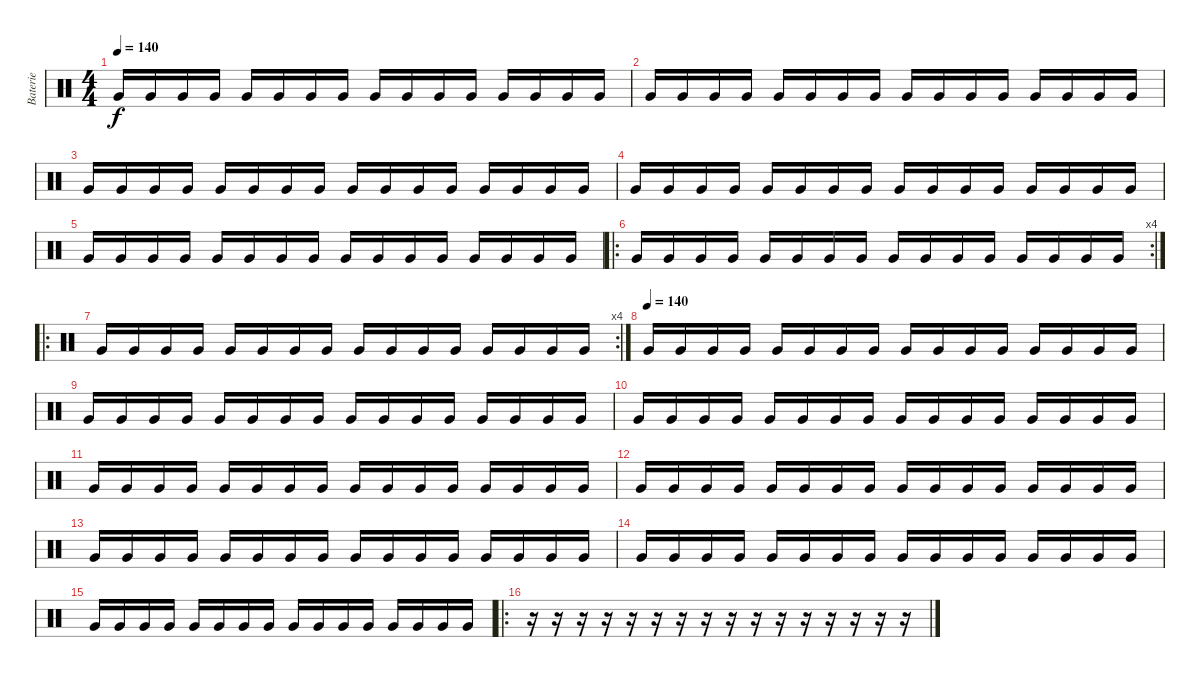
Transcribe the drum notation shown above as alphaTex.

\track ("Baterie" "Baterie") {instrument percussion}
\staff {score}
\articulation defaults
\ts (4 4)
\tempo 140
\clef neutral
\ks c "Very Low Tom (hit)".16{dy f} "Very Low Tom (hit)".16 "Very Low Tom (hit)".16 "Very Low Tom (hit)".16 "Very Low Tom (hit)".16 "Very Low Tom (hit)".16 "Very Low Tom (hit)".16 "Very Low Tom (hit)".16 "Very Low Tom (hit)".16 "Very Low Tom (hit)".16 "Very Low Tom (hit)".16 "Very Low Tom (hit)".16 "Very Low Tom (hit)".16 "Very Low Tom (hit)".16 "Very Low Tom (hit)".16 "Very Low Tom (hit)".16
|
"Very Low Tom (hit)".16 "Very Low Tom (hit)".16 "Very Low Tom (hit)".16 "Very Low Tom (hit)".16 "Very Low Tom (hit)".16 "Very Low Tom (hit)".16 "Very Low Tom (hit)".16 "Very Low Tom (hit)".16 "Very Low Tom (hit)".16 "Very Low Tom (hit)".16 "Very Low Tom (hit)".16 "Very Low Tom (hit)".16 "Very Low Tom (hit)".16 "Very Low Tom (hit)".16 "Very Low Tom (hit)".16 "Very Low Tom (hit)".16 |
"Very Low Tom (hit)".16 "Very Low Tom (hit)".16 "Very Low Tom (hit)".16 "Very Low Tom (hit)".16 "Very Low Tom (hit)".16 "Very Low Tom (hit)".16 "Very Low Tom (hit)".16 "Very Low Tom (hit)".16 "Very Low Tom (hit)".16 "Very Low Tom (hit)".16 "Very Low Tom (hit)".16 "Very Low Tom (hit)".16 "Very Low Tom (hit)".16 "Very Low Tom (hit)".16 "Very Low Tom (hit)".16 "Very Low Tom (hit)".16 |
"Very Low Tom (hit)".16 "Very Low Tom (hit)".16 "Very Low Tom (hit)".16 "Very Low Tom (hit)".16 "Very Low Tom (hit)".16 "Very Low Tom (hit)".16 "Very Low Tom (hit)".16 "Very Low Tom (hit)".16 "Very Low Tom (hit)".16 "Very Low Tom (hit)".16 "Very Low Tom (hit)".16 "Very Low Tom (hit)".16 "Very Low Tom (hit)".16 "Very Low Tom (hit)".16 "Very Low Tom (hit)".16 "Very Low Tom (hit)".16 |
"Very Low Tom (hit)".16 "Very Low Tom (hit)".16 "Very Low Tom (hit)".16 "Very Low Tom (hit)".16 "Very Low Tom (hit)".16 "Very Low Tom (hit)".16 "Very Low Tom (hit)".16 "Very Low Tom (hit)".16 "Very Low Tom (hit)".16 "Very Low Tom (hit)".16 "Very Low Tom (hit)".16 "Very Low Tom (hit)".16 "Very Low Tom (hit)".16 "Very Low Tom (hit)".16 "Very Low Tom (hit)".16 "Very Low Tom (hit)".16 |
\ro
\rc 4 "Very Low Tom (hit)".16 "Very Low Tom (hit)".16 "Very Low Tom (hit)".16 "Very Low Tom (hit)".16 "Very Low Tom (hit)".16 "Very Low Tom (hit)".16 "Very Low Tom (hit)".16 "Very Low Tom (hit)".16 "Very Low Tom (hit)".16 "Very Low Tom (hit)".16 "Very Low Tom (hit)".16 "Very Low Tom (hit)".16 "Very Low Tom (hit)".16 "Very Low Tom (hit)".16 "Very Low Tom (hit)".16 "Very Low Tom (hit)".16
|
\ro
\rc 4 "Very Low Tom (hit)".16 "Very Low Tom (hit)".16 "Very Low Tom (hit)".16 "Very Low Tom (hit)".16 "Very Low Tom (hit)".16 "Very Low Tom (hit)".16 "Very Low Tom (hit)".16 "Very Low Tom (hit)".16 "Very Low Tom (hit)".16 "Very Low Tom (hit)".16 "Very Low Tom (hit)".16 "Very Low Tom (hit)".16 "Very Low Tom (hit)".16 "Very Low Tom (hit)".16 "Very Low Tom (hit)".16 "Very Low Tom (hit)".16
|
\tempo (140)
"Very Low Tom (hit)".16 "Very Low Tom (hit)".16 "Very Low Tom (hit)".16 "Very Low Tom (hit)".16 "Very Low Tom (hit)".16 "Very Low Tom (hit)".16 "Very Low Tom (hit)".16 "Very Low Tom (hit)".16 "Very Low Tom (hit)".16 "Very Low Tom (hit)".16 "Very Low Tom (hit)".16 "Very Low Tom (hit)".16 "Very Low Tom (hit)".16 "Very Low Tom (hit)".16 "Very Low Tom (hit)".16 "Very Low Tom (hit)".16 |
"Very Low Tom (hit)".16 "Very Low Tom (hit)".16 "Very Low Tom (hit)".16 "Very Low Tom (hit)".16 "Very Low Tom (hit)".16 "Very Low Tom (hit)".16 "Very Low Tom (hit)".16 "Very Low Tom (hit)".16 "Very Low Tom (hit)".16 "Very Low Tom (hit)".16 "Very Low Tom (hit)".16 "Very Low Tom (hit)".16 "Very Low Tom (hit)".16 "Very Low Tom (hit)".16 "Very Low Tom (hit)".16 "Very Low Tom (hit)".16 |
"Very Low Tom (hit)".16 "Very Low Tom (hit)".16 "Very Low Tom (hit)".16 "Very Low Tom (hit)".16 "Very Low Tom (hit)".16 "Very Low Tom (hit)".16 "Very Low Tom (hit)".16 "Very Low Tom (hit)".16 "Very Low Tom (hit)".16 "Very Low Tom (hit)".16 "Very Low Tom (hit)".16 "Very Low Tom (hit)".16 "Very Low Tom (hit)".16 "Very Low Tom (hit)".16 "Very Low Tom (hit)".16 "Very Low Tom (hit)".16 |
"Very Low Tom (hit)".16 "Very Low Tom (hit)".16 "Very Low Tom (hit)".16 "Very Low Tom (hit)".16 "Very Low Tom (hit)".16 "Very Low Tom (hit)".16 "Very Low Tom (hit)".16 "Very Low Tom (hit)".16 "Very Low Tom (hit)".16 "Very Low Tom (hit)".16 "Very Low Tom (hit)".16 "Very Low Tom (hit)".16 "Very Low Tom (hit)".16 "Very Low Tom (hit)".16 "Very Low Tom (hit)".16 "Very Low Tom (hit)".16 |
"Very Low Tom (hit)".16 "Very Low Tom (hit)".16 "Very Low Tom (hit)".16 "Very Low Tom (hit)".16 "Very Low Tom (hit)".16 "Very Low Tom (hit)".16 "Very Low Tom (hit)".16 "Very Low Tom (hit)".16 "Very Low Tom (hit)".16 "Very Low Tom (hit)".16 "Very Low Tom (hit)".16 "Very Low Tom (hit)".16 "Very Low Tom (hit)".16 "Very Low Tom (hit)".16 "Very Low Tom (hit)".16 "Very Low Tom (hit)".16 |
"Very Low Tom (hit)".16 "Very Low Tom (hit)".16 "Very Low Tom (hit)".16 "Very Low Tom (hit)".16 "Very Low Tom (hit)".16 "Very Low Tom (hit)".16 "Very Low Tom (hit)".16 "Very Low Tom (hit)".16 "Very Low Tom (hit)".16 "Very Low Tom (hit)".16 "Very Low Tom (hit)".16 "Very Low Tom (hit)".16 "Very Low Tom (hit)".16 "Very Low Tom (hit)".16 "Very Low Tom (hit)".16 "Very Low Tom (hit)".16 |
"Very Low Tom (hit)".16 "Very Low Tom (hit)".16 "Very Low Tom (hit)".16 "Very Low Tom (hit)".16 "Very Low Tom (hit)".16 "Very Low Tom (hit)".16 "Very Low Tom (hit)".16 "Very Low Tom (hit)".16 "Very Low Tom (hit)".16 "Very Low Tom (hit)".16 "Very Low Tom (hit)".16 "Very Low Tom (hit)".16 "Very Low Tom (hit)".16 "Very Low Tom (hit)".16 "Very Low Tom (hit)".16 "Very Low Tom (hit)".16 |
"Very Low Tom (hit)".16 "Very Low Tom (hit)".16 "Very Low Tom (hit)".16 "Very Low Tom (hit)".16 "Very Low Tom (hit)".16 "Very Low Tom (hit)".16 "Very Low Tom (hit)".16 "Very Low Tom (hit)".16 "Very Low Tom (hit)".16 "Very Low Tom (hit)".16 "Very Low Tom (hit)".16 "Very Low Tom (hit)".16 "Very Low Tom (hit)".16 "Very Low Tom (hit)".16 "Very Low Tom (hit)".16 "Very Low Tom (hit)".16 |
\ro
r.16 r.16 r.16 r.16 r.16 r.16 r.16 r.16 r.16 r.16 r.16 r.16 r.16 r.16 r.16 r.16
